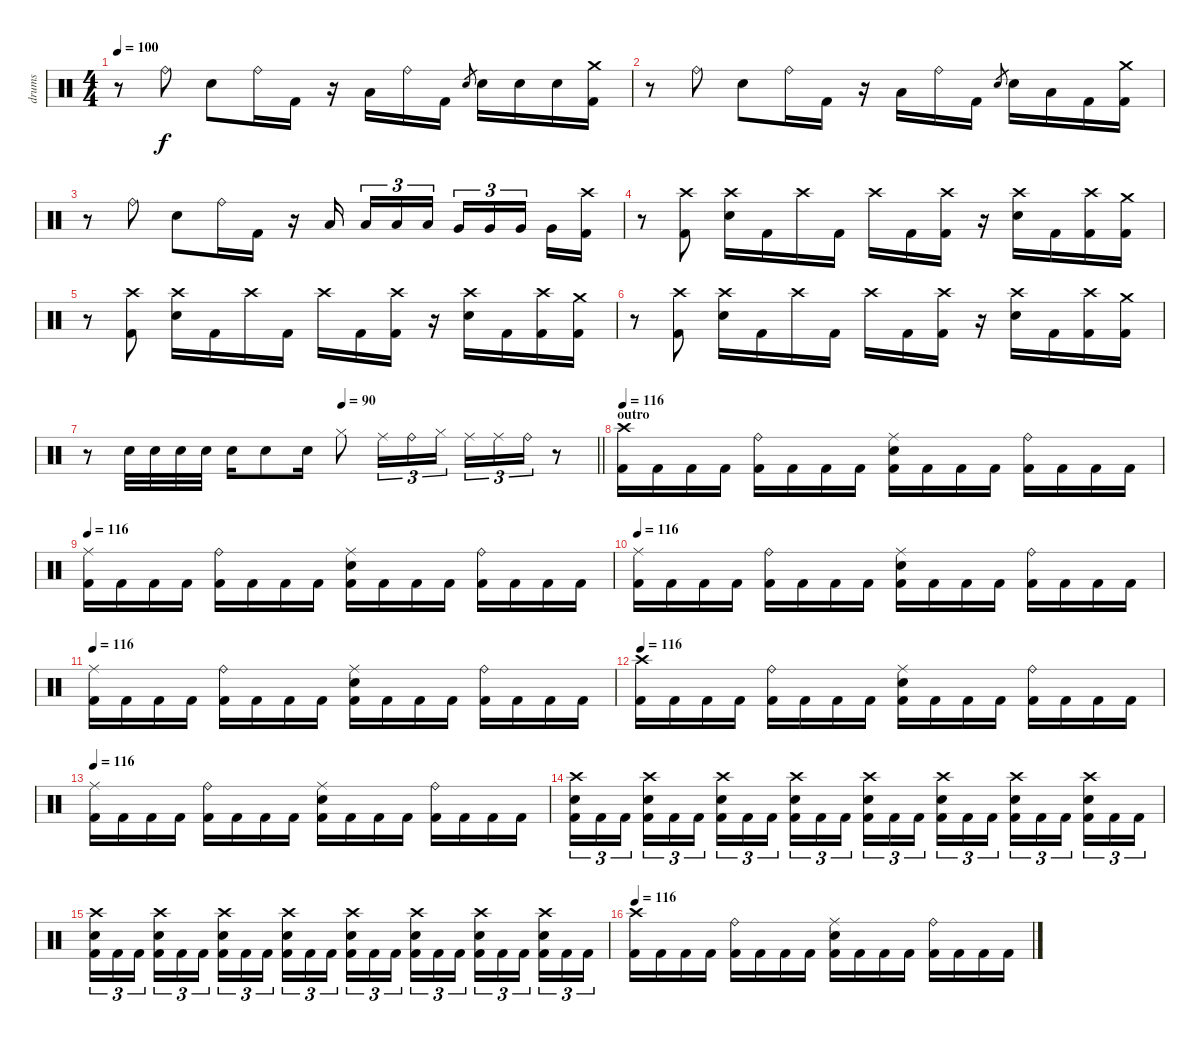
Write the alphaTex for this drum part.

\track ("drums" "drums") {instrument percussion}
\staff {score}
\articulation defaults
\ts (4 4)
\tempo 100
\clef neutral
\ks c
r.8{dy f} "Ride (bell)".8 "Snare (hit) 2".8 "Ride (bell)".16 "Kick (hit) 2".16 r.16 "Low Tom (hit)".16 "Ride (bell)".16 "Kick (hit) 2".16 "Snare (hit) 2".8{gr} "Snare (hit) 2".16 "Snare (hit) 2".16 "Snare (hit) 2".16 ("Crash medium (hit)" "Kick (hit) 2").16 |
r.8 "Ride (bell)".8 "Snare (hit) 2".8 "Ride (bell)".16 "Kick (hit) 2".16 r.16 "Low Tom (hit)".16 "Ride (bell)".16 "Kick (hit) 2".16 "Snare (hit) 2".8{gr} "Snare (hit) 2".16 "Low Tom (hit)".16 "Kick (hit) 2".16 ("Crash medium (hit)" "Kick (hit) 2").16 |
r.8 "Ride (bell)".8 "Snare (hit) 2".8 "Ride (bell)".16 "Kick (hit) 2".16 r.16 "Low Tom (hit)".16{beam splitsecondary} "Low Tom (hit)".16{tu (3 2)} "Low Tom (hit)".16{tu (3 2)} "Low Tom (hit)".16{tu (3 2)} "Very Low Tom (hit)".16{tu (3 2)} "Very Low Tom (hit)".16{tu (3 2)} "Very Low Tom (hit)".16{tu (3 2) beam splitsecondary} "Very Low Tom (hit)".16 ("Crash high (hit)" "Kick (hit) 2").16 |
r.8 ("Crash high (hit)" "Kick (hit) 2").8 ("Crash high (hit)" "Snare (hit) 2").16 "Kick (hit) 2".16 "Crash high (hit)".16 "Kick (hit) 2".16 "Crash high (hit)".16 "Kick (hit) 2".16 ("Crash high (hit)" "Kick (hit) 2").16 r.16 ("Crash high (hit)" "Snare (hit) 2").16 "Kick (hit) 2".16 ("Crash high (hit)" "Kick (hit) 2").16 ("Crash medium (hit)" "Kick (hit) 2").16 |
r.8 ("Crash high (hit)" "Kick (hit) 2").8 ("Crash high (hit)" "Snare (hit) 2").16 "Kick (hit) 2".16 "Crash high (hit)".16 "Kick (hit) 2".16 "Crash high (hit)".16 "Kick (hit) 2".16 ("Crash high (hit)" "Kick (hit) 2").16 r.16 ("Crash high (hit)" "Snare (hit) 2").16 "Kick (hit) 2".16 ("Crash high (hit)" "Kick (hit) 2").16 ("Crash medium (hit)" "Kick (hit) 2").16 |
r.8 ("Crash high (hit)" "Kick (hit) 2").8 ("Crash high (hit)" "Snare (hit) 2").16 "Kick (hit) 2".16 "Crash high (hit)".16 "Kick (hit) 2".16 "Crash high (hit)".16 "Kick (hit) 2".16 ("Crash high (hit)" "Kick (hit) 2").16 r.16 ("Crash high (hit)" "Snare (hit) 2").16 "Kick (hit) 2".16 ("Crash high (hit)" "Kick (hit) 2").16 ("Crash medium (hit)" "Kick (hit) 2").16 |
\tempo (90 0.5)
\barLineRight lightlight
r.8 "Snare (hit) 2".32 "Snare (hit) 2".32 "Snare (hit) 2".32 "Snare (hit) 2".32 "Snare (hit) 2".16 "Snare (hit) 2".8 "Snare (hit) 2".16 "Hi-Hat (closed)".8 "Ride (middle)".16{tu (3 2)} "Ride (bell)".16{tu (3 2)} "Hi-Hat (closed)".16{tu (3 2)} "Ride (middle)".16{tu (3 2)} "Ride (middle)".16{tu (3 2)} "Ride (bell)".16{tu (3 2)} r.8 |
\section ("" "outro")
\tempo 116
("Crash high (hit)" "Kick (hit) 2").16 "Kick (hit) 2".16 "Kick (hit) 2".16 "Kick (hit) 2".16 ("Ride (bell)" "Kick (hit) 2").16 "Kick (hit) 2".16 "Kick (hit) 2".16 "Kick (hit) 2".16 ("Ride (middle)" "Snare (hit) 2" "Kick (hit) 2").16 "Kick (hit) 2".16 "Kick (hit) 2".16 "Kick (hit) 2".16 ("Ride (bell)" "Kick (hit) 2").16 "Kick (hit) 2".16 "Kick (hit) 2".16 "Kick (hit) 2".16 |
\tempo 116
("Ride (middle)" "Kick (hit) 2").16 "Kick (hit) 2".16 "Kick (hit) 2".16 "Kick (hit) 2".16 ("Ride (bell)" "Kick (hit) 2").16 "Kick (hit) 2".16 "Kick (hit) 2".16 "Kick (hit) 2".16 ("Ride (middle)" "Snare (hit) 2" "Kick (hit) 2").16 "Kick (hit) 2".16 "Kick (hit) 2".16 "Kick (hit) 2".16 ("Ride (bell)" "Kick (hit) 2").16 "Kick (hit) 2".16 "Kick (hit) 2".16 "Kick (hit) 2".16 |
\tempo 116
("Ride (middle)" "Kick (hit) 2").16 "Kick (hit) 2".16 "Kick (hit) 2".16 "Kick (hit) 2".16 ("Ride (bell)" "Kick (hit) 2").16 "Kick (hit) 2".16 "Kick (hit) 2".16 "Kick (hit) 2".16 ("Ride (middle)" "Snare (hit) 2" "Kick (hit) 2").16 "Kick (hit) 2".16 "Kick (hit) 2".16 "Kick (hit) 2".16 ("Ride (bell)" "Kick (hit) 2").16 "Kick (hit) 2".16 "Kick (hit) 2".16 "Kick (hit) 2".16 |
\tempo 116
("Ride (middle)" "Kick (hit) 2").16 "Kick (hit) 2".16 "Kick (hit) 2".16 "Kick (hit) 2".16 ("Ride (bell)" "Kick (hit) 2").16 "Kick (hit) 2".16 "Kick (hit) 2".16 "Kick (hit) 2".16 ("Ride (middle)" "Snare (hit) 2" "Kick (hit) 2").16 "Kick (hit) 2".16 "Kick (hit) 2".16 "Kick (hit) 2".16 ("Ride (bell)" "Kick (hit) 2").16 "Kick (hit) 2".16 "Kick (hit) 2".16 "Kick (hit) 2".16 |
\tempo 116
("Crash high (hit)" "Kick (hit) 2").16 "Kick (hit) 2".16 "Kick (hit) 2".16 "Kick (hit) 2".16 ("Ride (bell)" "Kick (hit) 2").16 "Kick (hit) 2".16 "Kick (hit) 2".16 "Kick (hit) 2".16 ("Ride (middle)" "Snare (hit) 2" "Kick (hit) 2").16 "Kick (hit) 2".16 "Kick (hit) 2".16 "Kick (hit) 2".16 ("Ride (bell)" "Kick (hit) 2").16 "Kick (hit) 2".16 "Kick (hit) 2".16 "Kick (hit) 2".16 |
\tempo 116
("Ride (middle)" "Kick (hit) 2").16 "Kick (hit) 2".16 "Kick (hit) 2".16 "Kick (hit) 2".16 ("Ride (bell)" "Kick (hit) 2").16 "Kick (hit) 2".16 "Kick (hit) 2".16 "Kick (hit) 2".16 ("Ride (middle)" "Snare (hit) 2" "Kick (hit) 2").16 "Kick (hit) 2".16 "Kick (hit) 2".16 "Kick (hit) 2".16 ("Ride (bell)" "Kick (hit) 2").16 "Kick (hit) 2".16 "Kick (hit) 2".16 "Kick (hit) 2".16 |
("Crash high (hit)" "Snare (hit) 2" "Kick (hit) 2").16{tu (3 2)} "Kick (hit) 2".16{tu (3 2)} "Kick (hit) 2".16{tu (3 2) beam splitsecondary} ("Crash high (hit)" "Snare (hit) 2" "Kick (hit) 2").16{tu (3 2)} "Kick (hit) 2".16{tu (3 2)} "Kick (hit) 2".16{tu (3 2)} ("Crash high (hit)" "Snare (hit) 2" "Kick (hit) 2").16{tu (3 2)} "Kick (hit) 2".16{tu (3 2)} "Kick (hit) 2".16{tu (3 2) beam splitsecondary} ("Crash high (hit)" "Snare (hit) 2" "Kick (hit) 2").16{tu (3 2)} "Kick (hit) 2".16{tu (3 2)} "Kick (hit) 2".16{tu (3 2)} ("Crash high (hit)" "Snare (hit) 2" "Kick (hit) 2").16{tu (3 2)} "Kick (hit) 2".16{tu (3 2)} "Kick (hit) 2".16{tu (3 2) beam splitsecondary} ("Crash high (hit)" "Snare (hit) 2" "Kick (hit) 2").16{tu (3 2)} "Kick (hit) 2".16{tu (3 2)} "Kick (hit) 2".16{tu (3 2)} ("Crash high (hit)" "Snare (hit) 2" "Kick (hit) 2").16{tu (3 2)} "Kick (hit) 2".16{tu (3 2)} "Kick (hit) 2".16{tu (3 2) beam splitsecondary} ("Crash high (hit)" "Snare (hit) 2" "Kick (hit) 2").16{tu (3 2)} "Kick (hit) 2".16{tu (3 2)} "Kick (hit) 2".16{tu (3 2)} |
("Crash high (hit)" "Snare (hit) 2" "Kick (hit) 2").16{tu (3 2)} "Kick (hit) 2".16{tu (3 2)} "Kick (hit) 2".16{tu (3 2) beam splitsecondary} ("Crash high (hit)" "Snare (hit) 2" "Kick (hit) 2").16{tu (3 2)} "Kick (hit) 2".16{tu (3 2)} "Kick (hit) 2".16{tu (3 2)} ("Crash high (hit)" "Snare (hit) 2" "Kick (hit) 2").16{tu (3 2)} "Kick (hit) 2".16{tu (3 2)} "Kick (hit) 2".16{tu (3 2) beam splitsecondary} ("Crash high (hit)" "Snare (hit) 2" "Kick (hit) 2").16{tu (3 2)} "Kick (hit) 2".16{tu (3 2)} "Kick (hit) 2".16{tu (3 2)} ("Crash high (hit)" "Snare (hit) 2" "Kick (hit) 2").16{tu (3 2)} "Kick (hit) 2".16{tu (3 2)} "Kick (hit) 2".16{tu (3 2) beam splitsecondary} ("Crash high (hit)" "Snare (hit) 2" "Kick (hit) 2").16{tu (3 2)} "Kick (hit) 2".16{tu (3 2)} "Kick (hit) 2".16{tu (3 2)} ("Crash high (hit)" "Snare (hit) 2" "Kick (hit) 2").16{tu (3 2)} "Kick (hit) 2".16{tu (3 2)} "Kick (hit) 2".16{tu (3 2) beam splitsecondary} ("Crash high (hit)" "Snare (hit) 2" "Kick (hit) 2").16{tu (3 2)} "Kick (hit) 2".16{tu (3 2)} "Kick (hit) 2".16{tu (3 2)} |
\tempo 116
("Crash high (hit)" "Kick (hit) 2").16 "Kick (hit) 2".16 "Kick (hit) 2".16 "Kick (hit) 2".16 ("Ride (bell)" "Kick (hit) 2").16 "Kick (hit) 2".16 "Kick (hit) 2".16 "Kick (hit) 2".16 ("Ride (middle)" "Snare (hit) 2" "Kick (hit) 2").16 "Kick (hit) 2".16 "Kick (hit) 2".16 "Kick (hit) 2".16 ("Ride (bell)" "Kick (hit) 2").16 "Kick (hit) 2".16 "Kick (hit) 2".16 "Kick (hit) 2".16
